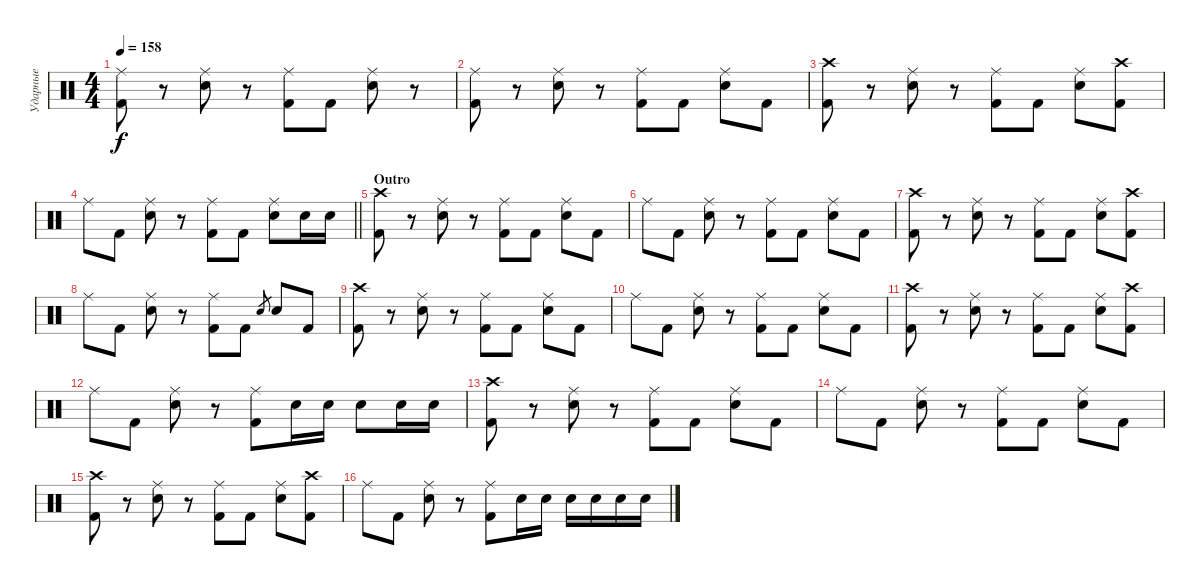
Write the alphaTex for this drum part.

\track ("Ударные" "Ударные") {instrument percussion}
\staff {score}
\articulation defaults
\ts (4 4)
\tempo 158
\clef neutral
\ks c
("Ride (middle)" "Kick (hit) 2").8{dy f} r.8 ("Ride (middle)" "Electric Snare (hit)").8 r.8 ("Ride (middle)" "Kick (hit) 2").8 "Kick (hit) 2".8 ("Ride (middle)" "Electric Snare (hit)").8 r.8 |
("Ride (middle)" "Kick (hit) 2").8 r.8 ("Ride (middle)" "Electric Snare (hit)").8 r.8 ("Ride (middle)" "Kick (hit) 2").8 "Kick (hit) 2".8 ("Ride (middle)" "Electric Snare (hit)").8 "Kick (hit) 2".8 |
("Crash high (hit)" "Kick (hit) 2").8 r.8 ("Ride (middle)" "Electric Snare (hit)").8 r.8 ("Ride (middle)" "Kick (hit) 2").8 "Kick (hit) 2".8 ("Ride (middle)" "Electric Snare (hit)").8 ("Crash high (hit)" "Kick (hit) 2").8 |
\barLineRight lightlight "Ride (middle)".8 "Kick (hit) 2".8
("Ride (middle)" "Electric Snare (hit)").8 r.8 ("Ride (middle)" "Kick (hit) 2").8 "Kick (hit) 2".8 ("Ride (middle)" "Electric Snare (hit)").8 "Electric Snare (hit)".16 "Electric Snare (hit)".16 |
\section ("" "Outro")
("Crash high (hit)" "Kick (hit) 2").8 r.8 ("Ride (middle)" "Electric Snare (hit)").8 r.8 ("Ride (middle)" "Kick (hit) 2").8 "Kick (hit) 2".8 ("Ride (middle)" "Electric Snare (hit)").8 "Kick (hit) 2".8 |
"Ride (middle)".8 "Kick (hit) 2".8 ("Ride (middle)" "Electric Snare (hit)").8 r.8 ("Ride (middle)" "Kick (hit) 2").8 "Kick (hit) 2".8 ("Ride (middle)" "Electric Snare (hit)").8 "Kick (hit) 2".8 |
("Crash high (hit)" "Kick (hit) 2").8 r.8 ("Ride (middle)" "Electric Snare (hit)").8 r.8 ("Ride (middle)" "Kick (hit) 2").8 "Kick (hit) 2".8 ("Ride (middle)" "Electric Snare (hit)").8 ("Crash high (hit)" "Kick (hit) 2").8 |
"Ride (middle)".8 "Kick (hit) 2".8 ("Ride (middle)" "Electric Snare (hit)").8 r.8 ("Ride (middle)" "Kick (hit) 2").8 "Kick (hit) 2".8 "Electric Snare (hit)".8{gr} "Electric Snare (hit)".8 "Kick (hit) 2".8 |
("Crash high (hit)" "Kick (hit) 2").8 r.8 ("Ride (middle)" "Electric Snare (hit)").8 r.8 ("Ride (middle)" "Kick (hit) 2").8 "Kick (hit) 2".8 ("Ride (middle)" "Electric Snare (hit)").8 "Kick (hit) 2".8 |
"Ride (middle)".8 "Kick (hit) 2".8 ("Ride (middle)" "Electric Snare (hit)").8 r.8 ("Ride (middle)" "Kick (hit) 2").8 "Kick (hit) 2".8 ("Ride (middle)" "Electric Snare (hit)").8 "Kick (hit) 2".8 |
("Crash high (hit)" "Kick (hit) 2").8 r.8 ("Ride (middle)" "Electric Snare (hit)").8 r.8 ("Ride (middle)" "Kick (hit) 2").8 "Kick (hit) 2".8 ("Ride (middle)" "Electric Snare (hit)").8 ("Crash high (hit)" "Kick (hit) 2").8 |
"Ride (middle)".8 "Kick (hit) 2".8 ("Ride (middle)" "Electric Snare (hit)").8 r.8 ("Ride (middle)" "Kick (hit) 2").8 "Electric Snare (hit)".16 "Electric Snare (hit)".16 "Electric Snare (hit)".8 "Electric Snare (hit)".16 "Electric Snare (hit)".16 |
("Crash high (hit)" "Kick (hit) 2").8 r.8 ("Ride (middle)" "Electric Snare (hit)").8 r.8 ("Ride (middle)" "Kick (hit) 2").8 "Kick (hit) 2".8 ("Ride (middle)" "Electric Snare (hit)").8 "Kick (hit) 2".8 |
"Ride (middle)".8 "Kick (hit) 2".8 ("Ride (middle)" "Electric Snare (hit)").8 r.8 ("Ride (middle)" "Kick (hit) 2").8 "Kick (hit) 2".8 ("Ride (middle)" "Electric Snare (hit)").8 "Kick (hit) 2".8 |
("Crash high (hit)" "Kick (hit) 2").8 r.8 ("Ride (middle)" "Electric Snare (hit)").8 r.8 ("Ride (middle)" "Kick (hit) 2").8 "Kick (hit) 2".8 ("Ride (middle)" "Electric Snare (hit)").8 ("Crash high (hit)" "Kick (hit) 2").8 |
"Ride (middle)".8 "Kick (hit) 2".8 ("Ride (middle)" "Electric Snare (hit)").8 r.8 ("Ride (middle)" "Kick (hit) 2").8 "Electric Snare (hit)".16 "Electric Snare (hit)".16 "Electric Snare (hit)".16 "Electric Snare (hit)".16 "Electric Snare (hit)".16 "Electric Snare (hit)".16
